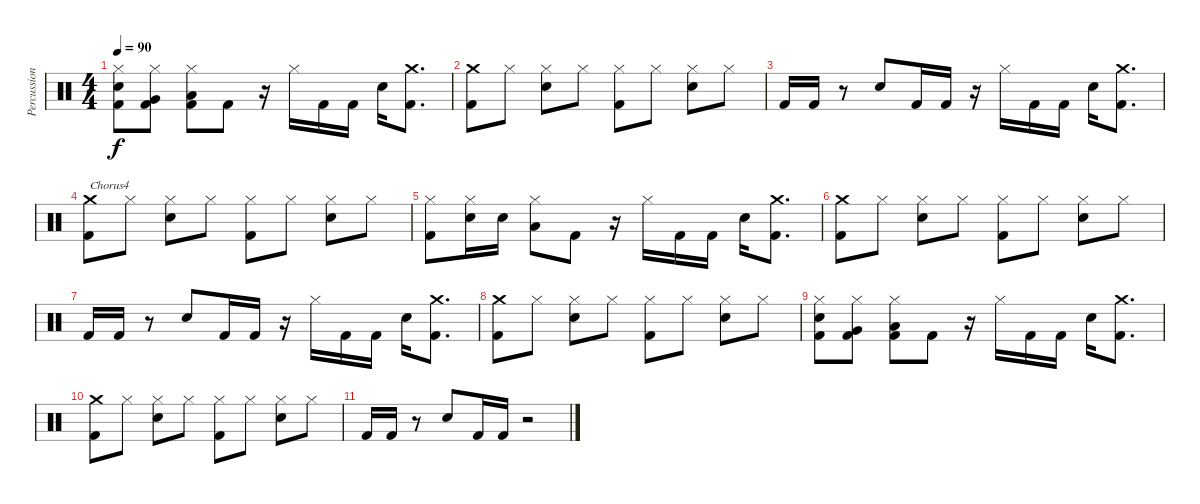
\track ("Percussion" "Percussion") {instrument percussion}
\staff {score}
\articulation defaults
\ts (4 4)
\tempo 90
\clef neutral
\ks c
("Hi-Hat (closed)" "Snare (hit) 2" "Kick (hit) 2").8{dy f} ("Hi-Hat (closed)" "Very Low Tom (hit)" "Kick (hit) 2").8 ("Hi-Hat (closed)" "Low Floor Tom (hit)" "Kick (hit) 2").8 "Kick (hit) 2".8 r.16 "Hi-Hat (closed)".16 "Kick (hit) 2".16 "Kick (hit) 2".16 "Snare (hit) 2".16 ("Crash medium (hit)" "Kick (hit) 2").8{d} |
("Crash medium (hit)" "Kick (hit) 2").8 "Hi-Hat (closed)".8 ("Hi-Hat (closed)" "Snare (hit) 2").8 "Hi-Hat (closed)".8 ("Hi-Hat (closed)" "Kick (hit) 2").8 "Hi-Hat (closed)".8 ("Hi-Hat (closed)" "Snare (hit) 2").8 "Hi-Hat (closed)".8 |
"Kick (hit) 2".16 "Kick (hit) 2".16 r.8 "Snare (hit) 2".8 "Kick (hit) 2".16 "Kick (hit) 2".16 r.16 "Hi-Hat (closed)".16 "Kick (hit) 2".16 "Kick (hit) 2".16 "Snare (hit) 2".16 ("Crash medium (hit)" "Kick (hit) 2").8{d} |
("Crash medium (hit)" "Kick (hit) 2").8{txt "Chorus4"} "Hi-Hat (closed)".8 ("Hi-Hat (closed)" "Snare (hit) 2").8 "Hi-Hat (closed)".8 ("Hi-Hat (closed)" "Kick (hit) 2").8 "Hi-Hat (closed)".8 ("Hi-Hat (closed)" "Snare (hit) 2").8 "Hi-Hat (closed)".8 |
("Hi-Hat (closed)" "Kick (hit) 2").8 ("Hi-Hat (closed)" "Snare (hit) 2").16 "Snare (hit) 2".16 ("Hi-Hat (closed)" "Low Floor Tom (hit)").8 "Kick (hit) 2".8 r.16 "Hi-Hat (closed)".16 "Kick (hit) 2".16 "Kick (hit) 2".16 "Snare (hit) 2".16 ("Crash medium (hit)" "Kick (hit) 2").8{d} |
("Crash medium (hit)" "Kick (hit) 2").8 "Hi-Hat (closed)".8 ("Hi-Hat (closed)" "Snare (hit) 2").8 "Hi-Hat (closed)".8 ("Hi-Hat (closed)" "Kick (hit) 2").8 "Hi-Hat (closed)".8 ("Hi-Hat (closed)" "Snare (hit) 2").8 "Hi-Hat (closed)".8 |
"Kick (hit) 2".16 "Kick (hit) 2".16 r.8 "Snare (hit) 2".8 "Kick (hit) 2".16 "Kick (hit) 2".16 r.16 "Hi-Hat (closed)".16 "Kick (hit) 2".16 "Kick (hit) 2".16 "Snare (hit) 2".16 ("Crash medium (hit)" "Kick (hit) 2").8{d} |
("Crash medium (hit)" "Kick (hit) 2").8 "Hi-Hat (closed)".8 ("Hi-Hat (closed)" "Snare (hit) 2").8 "Hi-Hat (closed)".8 ("Hi-Hat (closed)" "Kick (hit) 2").8 "Hi-Hat (closed)".8 ("Hi-Hat (closed)" "Snare (hit) 2").8 "Hi-Hat (closed)".8 |
("Hi-Hat (closed)" "Snare (hit) 2" "Kick (hit) 2").8 ("Hi-Hat (closed)" "Very Low Tom (hit)" "Kick (hit) 2").8 ("Hi-Hat (closed)" "Low Floor Tom (hit)" "Kick (hit) 2").8 "Kick (hit) 2".8 r.16 "Hi-Hat (closed)".16 "Kick (hit) 2".16 "Kick (hit) 2".16 "Snare (hit) 2".16 ("Crash medium (hit)" "Kick (hit) 2").8{d} |
("Crash medium (hit)" "Kick (hit) 2").8 "Hi-Hat (closed)".8 ("Hi-Hat (closed)" "Snare (hit) 2").8 "Hi-Hat (closed)".8 ("Hi-Hat (closed)" "Kick (hit) 2").8 "Hi-Hat (closed)".8 ("Hi-Hat (closed)" "Snare (hit) 2").8 "Hi-Hat (closed)".8 |
"Kick (hit) 2".16 "Kick (hit) 2".16 r.8 "Snare (hit) 2".8 "Kick (hit) 2".16 "Kick (hit) 2".16 r.2
